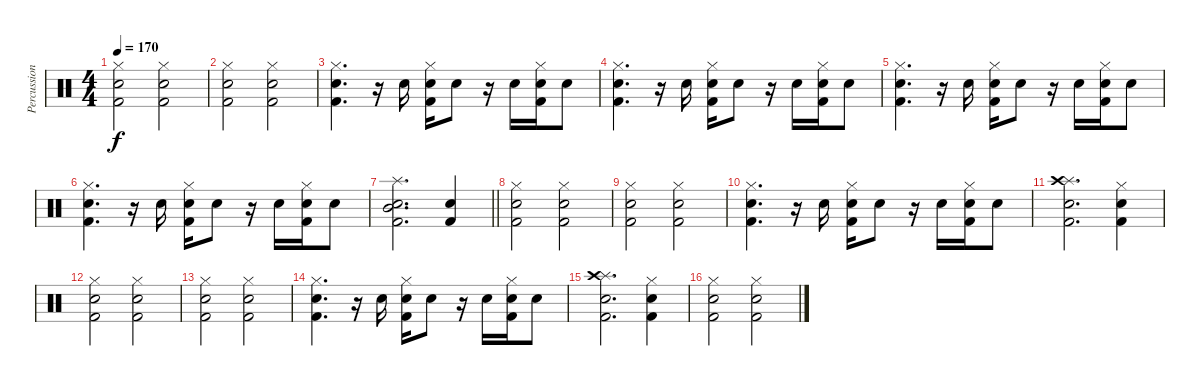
\track ("Percussion" "Percussion") {instrument percussion}
\staff {score}
\articulation defaults
\ts (4 4)
\tempo 170
\clef neutral
\ks c
("Hi-Hat (closed)" "Snare (hit) 2" "Kick (hit) 2").2{dy f} ("Hi-Hat (closed)" "Snare (hit) 2" "Kick (hit) 2").2 |
("Hi-Hat (closed)" "Snare (hit) 2" "Kick (hit) 2").2 ("Hi-Hat (closed)" "Snare (hit) 2" "Kick (hit) 2").2 |
("Hi-Hat (closed)" "Snare (hit) 2" "Kick (hit) 2").4{d} r.16 "Snare (hit) 2".16 ("Hi-Hat (closed)" "Snare (hit) 2" "Kick (hit) 2").16 "Snare (hit) 2".8 r.16 "Snare (hit) 2".16 ("Hi-Hat (closed)" "Snare (hit) 2" "Kick (hit) 2").16 "Snare (hit) 2".8 |
("Hi-Hat (closed)" "Snare (hit) 2" "Kick (hit) 2").4{d} r.16 "Snare (hit) 2".16 ("Hi-Hat (closed)" "Snare (hit) 2" "Kick (hit) 2").16 "Snare (hit) 2".8 r.16 "Snare (hit) 2".16 ("Hi-Hat (closed)" "Snare (hit) 2" "Kick (hit) 2").16 "Snare (hit) 2".8 |
("Hi-Hat (closed)" "Snare (hit) 2" "Kick (hit) 2").4{d} r.16 "Snare (hit) 2".16 ("Hi-Hat (closed)" "Snare (hit) 2" "Kick (hit) 2").16 "Snare (hit) 2".8 r.16 "Snare (hit) 2".16 ("Hi-Hat (closed)" "Snare (hit) 2" "Kick (hit) 2").16 "Snare (hit) 2".8 |
("Hi-Hat (closed)" "Snare (hit) 2" "Kick (hit) 2").4{d} r.16 "Snare (hit) 2".16 ("Hi-Hat (closed)" "Snare (hit) 2" "Kick (hit) 2").16 "Snare (hit) 2".8 r.16 "Snare (hit) 2".16 ("Hi-Hat (closed)" "Snare (hit) 2" "Kick (hit) 2").16 "Snare (hit) 2".8 |
\barLineRight lightlight
("Splash (hit)" "Mid Tom (hit)" "Snare (hit) 2" "Kick (hit) 2").2{d} ("Snare (hit) 2" "Kick (hit) 2").4 |
("Hi-Hat (closed)" "Snare (hit) 2" "Kick (hit) 2").2 ("Hi-Hat (closed)" "Snare (hit) 2" "Kick (hit) 2").2 |
("Hi-Hat (closed)" "Snare (hit) 2" "Kick (hit) 2").2 ("Hi-Hat (closed)" "Snare (hit) 2" "Kick (hit) 2").2 |
("Hi-Hat (closed)" "Snare (hit) 2" "Kick (hit) 2").4{d} r.16 "Snare (hit) 2".16 ("Hi-Hat (closed)" "Snare (hit) 2" "Kick (hit) 2").16 "Snare (hit) 2".8 r.16 "Snare (hit) 2".16 ("Hi-Hat (closed)" "Snare (hit) 2" "Kick (hit) 2").16 "Snare (hit) 2".8 |
("Splash (hit)" "Crash high (hit)" "Snare (hit) 2" "Kick (hit) 2").2{d} ("Hi-Hat (closed)" "Snare (hit) 2" "Kick (hit) 2").4 |
("Hi-Hat (closed)" "Snare (hit) 2" "Kick (hit) 2").2 ("Hi-Hat (closed)" "Snare (hit) 2" "Kick (hit) 2").2 |
("Hi-Hat (closed)" "Snare (hit) 2" "Kick (hit) 2").2 ("Hi-Hat (closed)" "Snare (hit) 2" "Kick (hit) 2").2 |
("Hi-Hat (closed)" "Snare (hit) 2" "Kick (hit) 2").4{d} r.16 "Snare (hit) 2".16 ("Hi-Hat (closed)" "Snare (hit) 2" "Kick (hit) 2").16 "Snare (hit) 2".8 r.16 "Snare (hit) 2".16 ("Hi-Hat (closed)" "Snare (hit) 2" "Kick (hit) 2").16 "Snare (hit) 2".8 |
("Splash (hit)" "Crash high (hit)" "Snare (hit) 2" "Kick (hit) 2").2{d} ("Hi-Hat (closed)" "Snare (hit) 2" "Kick (hit) 2").4 |
("Hi-Hat (closed)" "Snare (hit) 2" "Kick (hit) 2").2 ("Hi-Hat (closed)" "Snare (hit) 2" "Kick (hit) 2").2
